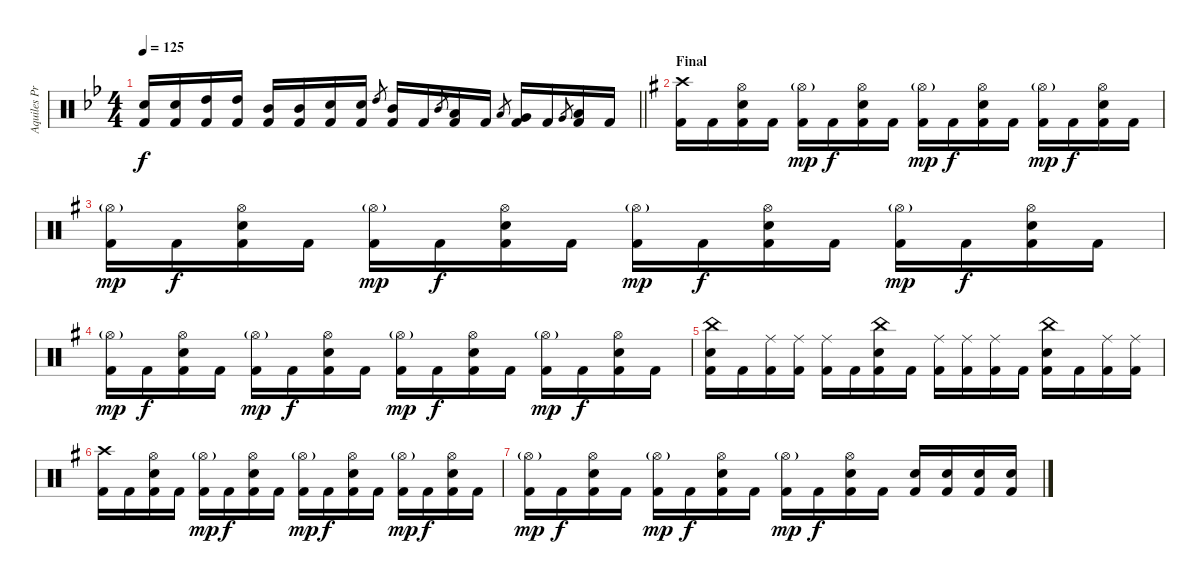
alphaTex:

\track ("Aquiles Priester" "Aquiles Pr") {instrument percussion}
\staff {score}
\articulation defaults
\ts (4 4)
\tempo 125
\clef neutral
\barLineRight lightlight
\ks bb
("Electric Snare (hit)" "Kick (hit) 2").16{dy f} ("Electric Snare (hit)" "Kick (hit) 2").16 ("High Tom (hit)" "Kick (hit) 2").16 ("High Tom (hit)" "Kick (hit) 2").16 ("Mid Tom (hit)" "Kick (hit) 2").16 ("Mid Tom (hit)" "Kick (hit) 2").16 ("Electric Snare (hit)" "Kick (hit) 2").16 ("Electric Snare (hit)" "Kick (hit) 2").16 "High Tom (hit)".8{gr} ("Mid Tom (hit)" "Kick (hit) 2").16 "Kick (hit) 2".16 "Mid Tom (hit)".8{gr} ("Low Tom (hit)" "Kick (hit) 2").16 "Kick (hit) 2".16 "Low Tom (hit)".8{gr} ("Very Low Tom (hit)" "Kick (hit) 2").16 "Kick (hit) 2".16 "Very Low Tom (hit)".8{gr} ("Low Floor Tom (hit)" "Kick (hit) 2").16 "Kick (hit) 2".16 |
\section ("" "Final")
\ks eminor
("Crash high (hit)" "Kick (hit) 2").16 "Kick (hit) 2".16 ("Hi-Hat (open)" "Electric Snare (hit)" "Kick (hit) 2").16 "Kick (hit) 2".16 ("Hi-Hat (open)"{g} "Kick (hit) 2").16{dy mp} "Kick (hit) 2".16{dy f} ("Hi-Hat (open)" "Electric Snare (hit)" "Kick (hit) 2").16 "Kick (hit) 2".16 ("Hi-Hat (open)"{g} "Kick (hit) 2").16{dy mp} "Kick (hit) 2".16{dy f} ("Hi-Hat (open)" "Electric Snare (hit)" "Kick (hit) 2").16 "Kick (hit) 2".16 ("Hi-Hat (open)"{g} "Kick (hit) 2").16{dy mp} "Kick (hit) 2".16{dy f} ("Hi-Hat (open)" "Electric Snare (hit)" "Kick (hit) 2").16 "Kick (hit) 2".16 |
("Hi-Hat (open)"{g} "Kick (hit) 2").16{dy mp} "Kick (hit) 2".16{dy f} ("Hi-Hat (open)" "Electric Snare (hit)" "Kick (hit) 2").16 "Kick (hit) 2".16 ("Hi-Hat (open)"{g} "Kick (hit) 2").16{dy mp} "Kick (hit) 2".16{dy f} ("Hi-Hat (open)" "Electric Snare (hit)" "Kick (hit) 2").16 "Kick (hit) 2".16 ("Hi-Hat (open)"{g} "Kick (hit) 2").16{dy mp} "Kick (hit) 2".16{dy f} ("Hi-Hat (open)" "Electric Snare (hit)" "Kick (hit) 2").16 "Kick (hit) 2".16 ("Hi-Hat (open)"{g} "Kick (hit) 2").16{dy mp} "Kick (hit) 2".16{dy f} ("Hi-Hat (open)" "Electric Snare (hit)" "Kick (hit) 2").16 "Kick (hit) 2".16 |
("Hi-Hat (open)"{g} "Kick (hit) 2").16{dy mp} "Kick (hit) 2".16{dy f} ("Hi-Hat (open)" "Electric Snare (hit)" "Kick (hit) 2").16 "Kick (hit) 2".16 ("Hi-Hat (open)"{g} "Kick (hit) 2").16{dy mp} "Kick (hit) 2".16{dy f} ("Hi-Hat (open)" "Electric Snare (hit)" "Kick (hit) 2").16 "Kick (hit) 2".16 ("Hi-Hat (open)"{g} "Kick (hit) 2").16{dy mp} "Kick (hit) 2".16{dy f} ("Hi-Hat (open)" "Electric Snare (hit)" "Kick (hit) 2").16 "Kick (hit) 2".16 ("Hi-Hat (open)"{g} "Kick (hit) 2").16{dy mp} "Kick (hit) 2".16{dy f} ("Hi-Hat (open)" "Electric Snare (hit)" "Kick (hit) 2").16 "Kick (hit) 2".16 |
("China (hit)" "Electric Snare (hit)" "Kick (hit) 2").16 "Kick (hit) 2".16 ("Ride (middle)" "Kick (hit) 2").16 ("Ride (middle)" "Kick (hit) 2").16 ("Ride (middle)" "Kick (hit) 2").16 "Kick (hit) 2".16 ("China (hit)" "Electric Snare (hit)" "Kick (hit) 2").16 "Kick (hit) 2".16 ("Ride (middle)" "Kick (hit) 2").16 ("Ride (middle)" "Kick (hit) 2").16 ("Ride (middle)" "Kick (hit) 2").16 "Kick (hit) 2".16 ("China (hit)" "Electric Snare (hit)" "Kick (hit) 2").16 "Kick (hit) 2".16 ("Ride (middle)" "Kick (hit) 2").16 ("Ride (middle)" "Kick (hit) 2").16 |
("Crash high (hit)" "Kick (hit) 2").16 "Kick (hit) 2".16 ("Hi-Hat (open)" "Electric Snare (hit)" "Kick (hit) 2").16 "Kick (hit) 2".16 ("Hi-Hat (open)"{g} "Kick (hit) 2").16{dy mp} "Kick (hit) 2".16{dy f} ("Hi-Hat (open)" "Electric Snare (hit)" "Kick (hit) 2").16 "Kick (hit) 2".16 ("Hi-Hat (open)"{g} "Kick (hit) 2").16{dy mp} "Kick (hit) 2".16{dy f} ("Hi-Hat (open)" "Electric Snare (hit)" "Kick (hit) 2").16 "Kick (hit) 2".16 ("Hi-Hat (open)"{g} "Kick (hit) 2").16{dy mp} "Kick (hit) 2".16{dy f} ("Hi-Hat (open)" "Electric Snare (hit)" "Kick (hit) 2").16 "Kick (hit) 2".16 |
("Hi-Hat (open)"{g} "Kick (hit) 2").16{dy mp} "Kick (hit) 2".16{dy f} ("Hi-Hat (open)" "Electric Snare (hit)" "Kick (hit) 2").16 "Kick (hit) 2".16 ("Hi-Hat (open)"{g} "Kick (hit) 2").16{dy mp} "Kick (hit) 2".16{dy f} ("Hi-Hat (open)" "Electric Snare (hit)" "Kick (hit) 2").16 "Kick (hit) 2".16 ("Hi-Hat (open)"{g} "Kick (hit) 2").16{dy mp} "Kick (hit) 2".16{dy f} ("Hi-Hat (open)" "Electric Snare (hit)" "Kick (hit) 2").16 "Kick (hit) 2".16 ("Electric Snare (hit)" "Kick (hit) 2").16 ("Electric Snare (hit)" "Kick (hit) 2").16 ("Electric Snare (hit)" "Kick (hit) 2").16 ("Electric Snare (hit)" "Kick (hit) 2").16
